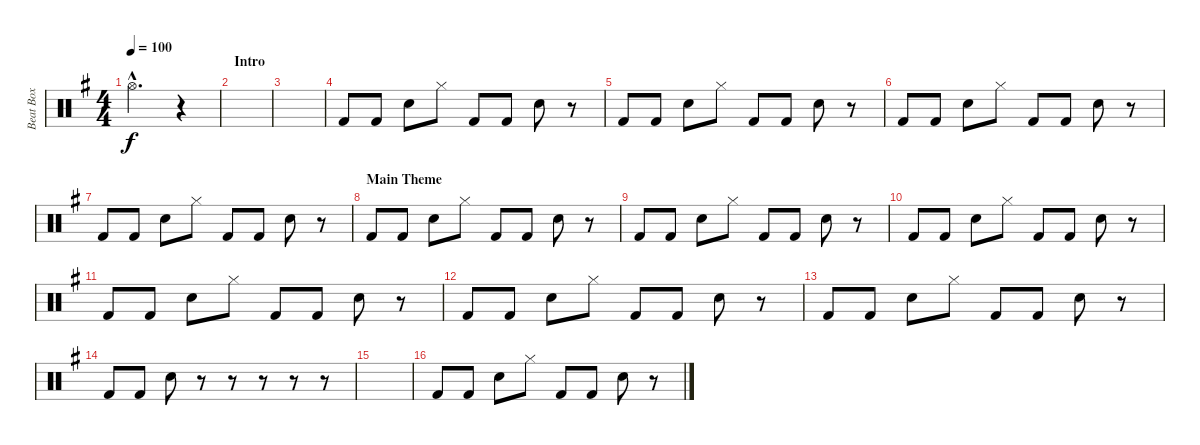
\track ("Beat Box" "Beat Box") {instrument percussion}
\staff {score}
\articulation defaults
\ts (4 4)
\tempo 100
\clef neutral
\ks g "Hi-Hat (open)"{hac}.2{d dy f}
r.4 |
\section ("" "Intro")
|
|
"Kick (hit) 2".8 "Kick (hit) 2".8 "Snare (hit) 2".8 "Hi-Hat (closed)".8 "Kick (hit) 2".8 "Kick (hit) 2".8 "Snare (hit) 2".8 r.8 |
"Kick (hit) 2".8 "Kick (hit) 2".8 "Snare (hit) 2".8 "Hi-Hat (closed)".8 "Kick (hit) 2".8 "Kick (hit) 2".8 "Snare (hit) 2".8 r.8 |
"Kick (hit) 2".8 "Kick (hit) 2".8 "Snare (hit) 2".8 "Hi-Hat (closed)".8 "Kick (hit) 2".8 "Kick (hit) 2".8 "Snare (hit) 2".8 r.8 |
"Kick (hit) 2".8 "Kick (hit) 2".8 "Snare (hit) 2".8 "Hi-Hat (closed)".8 "Kick (hit) 2".8 "Kick (hit) 2".8 "Snare (hit) 2".8 r.8 |
\section ("" "Main Theme")
"Kick (hit) 2".8 "Kick (hit) 2".8 "Snare (hit) 2".8 "Hi-Hat (closed)".8 "Kick (hit) 2".8 "Kick (hit) 2".8 "Snare (hit) 2".8 r.8 |
"Kick (hit) 2".8 "Kick (hit) 2".8 "Snare (hit) 2".8 "Hi-Hat (closed)".8 "Kick (hit) 2".8 "Kick (hit) 2".8 "Snare (hit) 2".8 r.8 |
"Kick (hit) 2".8 "Kick (hit) 2".8 "Snare (hit) 2".8 "Hi-Hat (closed)".8 "Kick (hit) 2".8 "Kick (hit) 2".8 "Snare (hit) 2".8 r.8 |
"Kick (hit) 2".8 "Kick (hit) 2".8 "Snare (hit) 2".8 "Hi-Hat (closed)".8 "Kick (hit) 2".8 "Kick (hit) 2".8 "Snare (hit) 2".8 r.8 |
"Kick (hit) 2".8 "Kick (hit) 2".8 "Snare (hit) 2".8 "Hi-Hat (closed)".8 "Kick (hit) 2".8 "Kick (hit) 2".8 "Snare (hit) 2".8 r.8 |
"Kick (hit) 2".8 "Kick (hit) 2".8 "Snare (hit) 2".8 "Hi-Hat (closed)".8 "Kick (hit) 2".8 "Kick (hit) 2".8 "Snare (hit) 2".8 r.8 |
"Kick (hit) 2".8 "Kick (hit) 2".8 "Snare (hit) 2".8 r.8 r.8 r.8 r.8 r.8 |
|
"Kick (hit) 2".8 "Kick (hit) 2".8 "Snare (hit) 2".8 "Hi-Hat (closed)".8 "Kick (hit) 2".8 "Kick (hit) 2".8 "Snare (hit) 2".8 r.8
